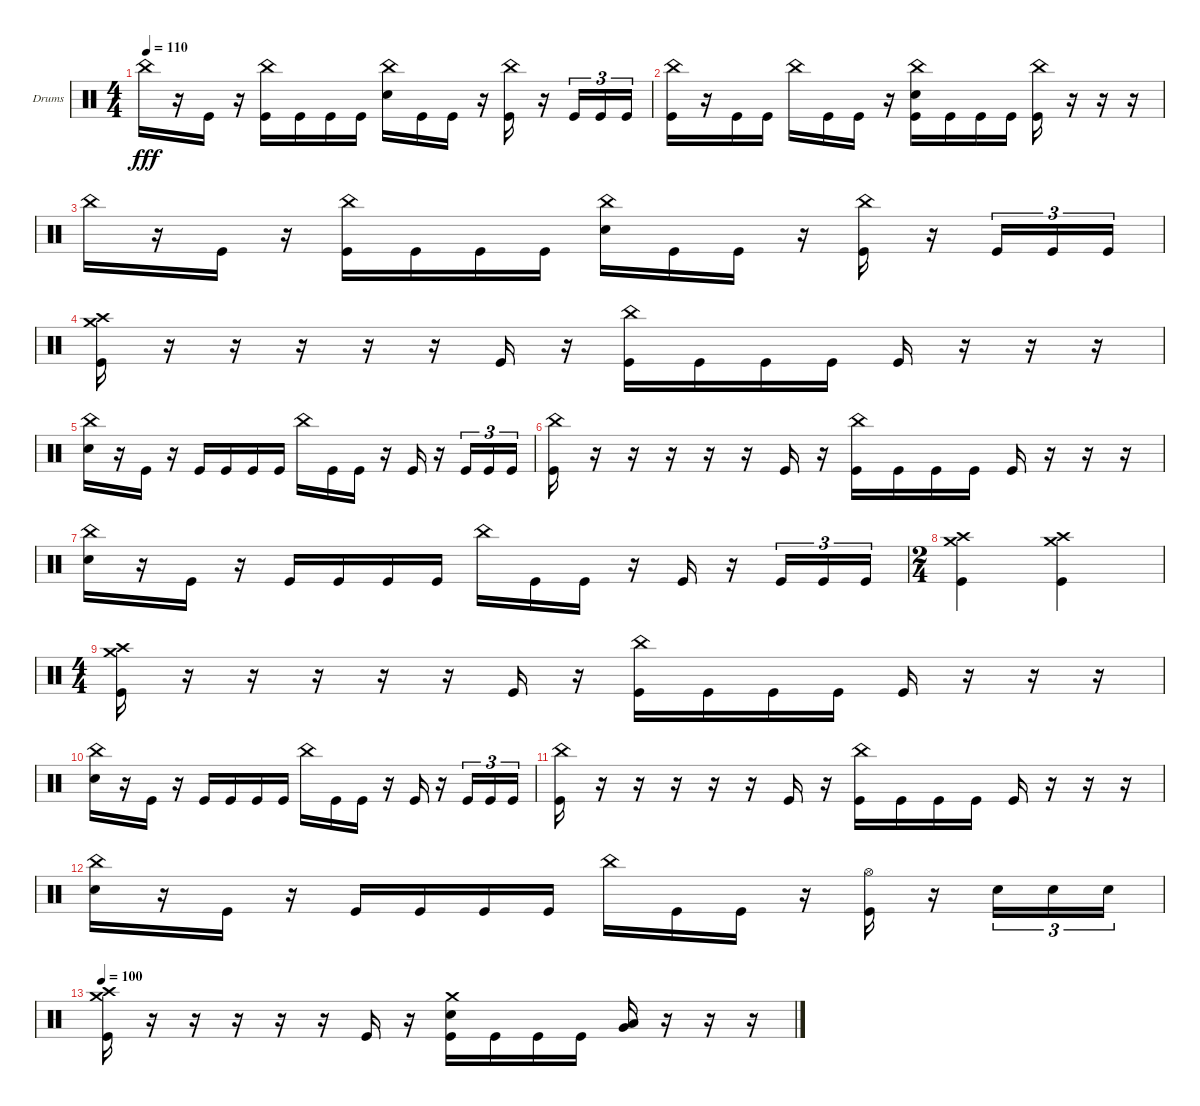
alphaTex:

\bracketExtendMode groupsimilarinstruments
\firstSystemTrackNameOrientation horizontal
\otherSystemsTrackNameOrientation horizontal
\track ("Drumkit" "Drums") {instrument percussion}
\staff {score}
\articulation defaults
\ts (4 4)
\tempo 110
\clef neutral
\ks c "China (hit)".16{dy fff}
r.16 "Kick (hit)".16 r.16 ("Kick (hit)" "China (hit)").16 "Kick (hit)".16 "Kick (hit)".16 "Kick (hit)".16 ("Snare (hit) 2" "China (hit)").16 "Kick (hit)".16 "Kick (hit)".16 r.16 ("Kick (hit)" "China (hit)").16 r.16 "Kick (hit)".16{tu (3 2)} "Kick (hit)".16{tu (3 2)} "Kick (hit)".16{tu (3 2)} |
("Kick (hit)" "China (hit)").16 r.16 "Kick (hit)".16 "Kick (hit)".16 "China (hit)".16 "Kick (hit)".16 "Kick (hit)".16 r.16 ("Kick (hit)" "Snare (hit) 2" "China (hit)").16 "Kick (hit)".16 "Kick (hit)".16 "Kick (hit)".16 ("Kick (hit)" "China (hit)").16 r.16 r.16 r.16 |
"China (hit)".16 r.16 "Kick (hit)".16 r.16 ("Kick (hit)" "China (hit)").16 "Kick (hit)".16 "Kick (hit)".16 "Kick (hit)".16 ("Snare (hit) 2" "China (hit)").16 "Kick (hit)".16 "Kick (hit)".16 r.16 ("Kick (hit)" "China (hit)").16 r.16 "Kick (hit)".16{tu (3 2)} "Kick (hit)".16{tu (3 2)} "Kick (hit)".16{tu (3 2)} |
("Kick (hit)" "Crash medium (hit)" "Crash high (hit)").16 r.16 r.16 r.16 r.16 r.16 "Kick (hit)".16 r.16 ("Kick (hit)" "China (hit)").16 "Kick (hit)".16 "Kick (hit)".16 "Kick (hit)".16 "Kick (hit)".16 r.16 r.16 r.16 |
("China (hit)" "Snare (hit) 2").16 r.16 "Kick (hit)".16 r.16 "Kick (hit)".16 "Kick (hit)".16 "Kick (hit)".16 "Kick (hit)".16 "China (hit)".16 "Kick (hit)".16 "Kick (hit)".16 r.16 "Kick (hit)".16 r.16 "Kick (hit)".16{tu (3 2)} "Kick (hit)".16{tu (3 2)} "Kick (hit)".16{tu (3 2)} |
("Kick (hit)" "China (hit)").16 r.16 r.16 r.16 r.16 r.16 "Kick (hit)".16 r.16 ("Kick (hit)" "China (hit)").16 "Kick (hit)".16 "Kick (hit)".16 "Kick (hit)".16 "Kick (hit)".16 r.16 r.16 r.16 |
("China (hit)" "Snare (hit) 2").16 r.16 "Kick (hit)".16 r.16 "Kick (hit)".16 "Kick (hit)".16 "Kick (hit)".16 "Kick (hit)".16 "China (hit)".16 "Kick (hit)".16 "Kick (hit)".16 r.16 "Kick (hit)".16 r.16 "Kick (hit)".16{tu (3 2)} "Kick (hit)".16{tu (3 2)} "Kick (hit)".16{tu (3 2)} |
\ts (2 4)
("Kick (hit)" "Crash medium (hit)" "Crash high (hit)").4 ("Crash high (hit)" "Crash medium (hit)" "Kick (hit)").4 |
\ts (4 4)
("Kick (hit)" "Crash medium (hit)" "Crash high (hit)").16 r.16 r.16 r.16 r.16 r.16 "Kick (hit)".16 r.16 ("Kick (hit)" "China (hit)").16 "Kick (hit)".16 "Kick (hit)".16 "Kick (hit)".16 "Kick (hit)".16 r.16 r.16 r.16 |
("China (hit)" "Snare (hit) 2").16 r.16 "Kick (hit)".16 r.16 "Kick (hit)".16 "Kick (hit)".16 "Kick (hit)".16 "Kick (hit)".16 "China (hit)".16 "Kick (hit)".16 "Kick (hit)".16 r.16 "Kick (hit)".16 r.16 "Kick (hit)".16{tu (3 2)} "Kick (hit)".16{tu (3 2)} "Kick (hit)".16{tu (3 2)} |
("Kick (hit)" "China (hit)").16 r.16 r.16 r.16 r.16 r.16 "Kick (hit)".16 r.16 ("Kick (hit)" "China (hit)").16 "Kick (hit)".16 "Kick (hit)".16 "Kick (hit)".16 "Kick (hit)".16 r.16 r.16 r.16 |
("China (hit)" "Snare (hit) 2").16 r.16 "Kick (hit)".16 r.16 "Kick (hit)".16 "Kick (hit)".16 "Kick (hit)".16 "Kick (hit)".16 "China (hit)".16 "Kick (hit)".16 "Kick (hit)".16 r.16 ("Kick (hit)" "Hi-Hat (open)").16 r.16 "Snare (hit) 2".16{tu (3 2)} "Snare (hit) 2".16{tu (3 2)} "Snare (hit) 2".16{tu (3 2)} |
\tempo 100
("Kick (hit)" "Crash medium (hit)" "Crash high (hit)").16 r.16 r.16 r.16 r.16 r.16 "Kick (hit)".16 r.16 ("Kick (hit)" "Snare (hit) 2" "Crash medium (hit)").16 "Kick (hit)".16 "Kick (hit)".16 "Kick (hit)".16 ("Very Low Tom (hit)" "Low Tom (hit)").16 r.16 r.16 r.16
